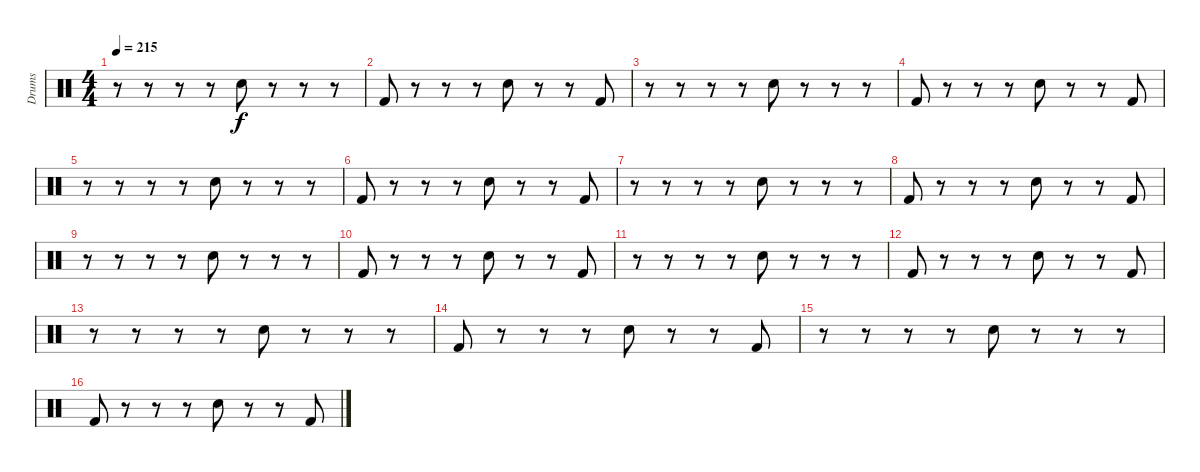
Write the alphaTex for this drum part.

\track ("Drums" "Drums") {instrument percussion}
\staff {score}
\articulation defaults
\ts (4 4)
\tempo 215
\clef neutral
\ks c
r.8{dy f} r.8 r.8 r.8 "Electric Snare (hit)".8 r.8 r.8 r.8 |
"Kick (hit) 2".8 r.8 r.8 r.8 "Electric Snare (hit)".8 r.8 r.8 "Kick (hit) 2".8 |
r.8 r.8 r.8 r.8 "Electric Snare (hit)".8 r.8 r.8 r.8 |
"Kick (hit) 2".8 r.8 r.8 r.8 "Electric Snare (hit)".8 r.8 r.8 "Kick (hit) 2".8 |
r.8 r.8 r.8 r.8 "Electric Snare (hit)".8 r.8 r.8 r.8 |
"Kick (hit) 2".8 r.8 r.8 r.8 "Electric Snare (hit)".8 r.8 r.8 "Kick (hit) 2".8 |
r.8 r.8 r.8 r.8 "Electric Snare (hit)".8 r.8 r.8 r.8 |
"Kick (hit) 2".8 r.8 r.8 r.8 "Electric Snare (hit)".8 r.8 r.8 "Kick (hit) 2".8 |
r.8 r.8 r.8 r.8 "Electric Snare (hit)".8 r.8 r.8 r.8 |
"Kick (hit) 2".8 r.8 r.8 r.8 "Electric Snare (hit)".8 r.8 r.8 "Kick (hit) 2".8 |
r.8 r.8 r.8 r.8 "Electric Snare (hit)".8 r.8 r.8 r.8 |
"Kick (hit) 2".8 r.8 r.8 r.8 "Electric Snare (hit)".8 r.8 r.8 "Kick (hit) 2".8 |
r.8 r.8 r.8 r.8 "Electric Snare (hit)".8 r.8 r.8 r.8 |
"Kick (hit) 2".8 r.8 r.8 r.8 "Electric Snare (hit)".8 r.8 r.8 "Kick (hit) 2".8 |
r.8 r.8 r.8 r.8 "Electric Snare (hit)".8 r.8 r.8 r.8 |
"Kick (hit) 2".8 r.8 r.8 r.8 "Electric Snare (hit)".8 r.8 r.8 "Kick (hit) 2".8
